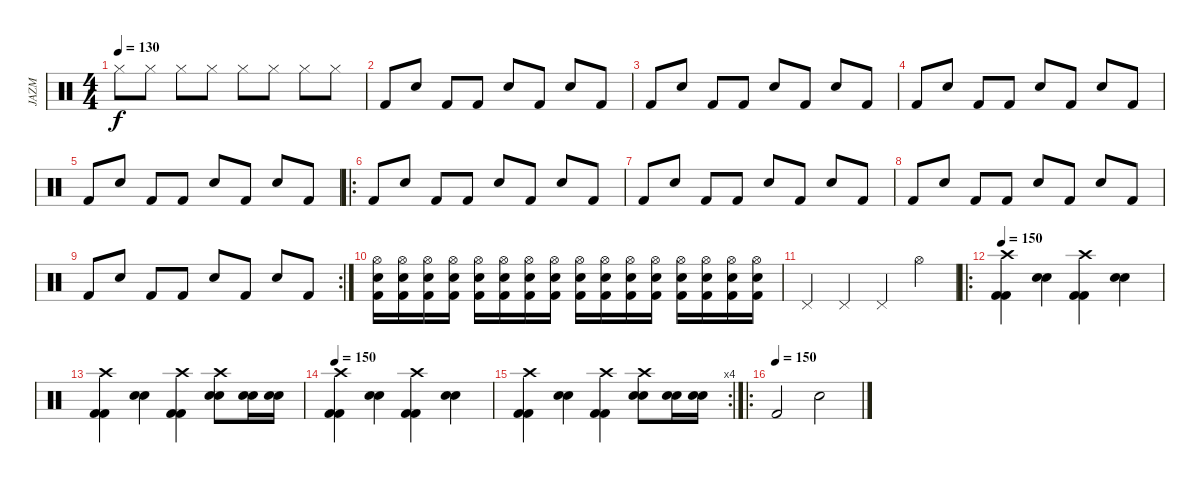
\track ("JAZM" "JAZM") {instrument percussion}
\staff {score}
\articulation defaults
\ts (4 4)
\tempo 130
\clef neutral
\ks c "Hi-Hat (closed)".8{dy f} "Hi-Hat (closed)".8 "Hi-Hat (closed)".8 "Hi-Hat (closed)".8 "Hi-Hat (closed)".8 "Hi-Hat (closed)".8 "Hi-Hat (closed)".8 "Hi-Hat (closed)".8
|
"Kick (hit) 2".8 "Snare (hit) 2".8 "Kick (hit) 2".8 "Kick (hit) 2".8 "Snare (hit) 2".8 "Kick (hit) 2".8 "Snare (hit) 2".8 "Kick (hit) 2".8 |
"Kick (hit) 2".8 "Snare (hit) 2".8 "Kick (hit) 2".8 "Kick (hit) 2".8 "Snare (hit) 2".8 "Kick (hit) 2".8 "Snare (hit) 2".8 "Kick (hit) 2".8 |
"Kick (hit) 2".8 "Snare (hit) 2".8 "Kick (hit) 2".8 "Kick (hit) 2".8 "Snare (hit) 2".8 "Kick (hit) 2".8 "Snare (hit) 2".8 "Kick (hit) 2".8 |
"Kick (hit) 2".8 "Snare (hit) 2".8 "Kick (hit) 2".8 "Kick (hit) 2".8 "Snare (hit) 2".8 "Kick (hit) 2".8 "Snare (hit) 2".8 "Kick (hit) 2".8 |
\ro "Kick (hit) 2".8 "Snare (hit) 2".8 "Kick (hit) 2".8 "Kick (hit) 2".8 "Snare (hit) 2".8 "Kick (hit) 2".8 "Snare (hit) 2".8 "Kick (hit) 2".8
|
"Kick (hit) 2".8 "Snare (hit) 2".8 "Kick (hit) 2".8 "Kick (hit) 2".8 "Snare (hit) 2".8 "Kick (hit) 2".8 "Snare (hit) 2".8 "Kick (hit) 2".8 |
"Kick (hit) 2".8 "Snare (hit) 2".8 "Kick (hit) 2".8 "Kick (hit) 2".8 "Snare (hit) 2".8 "Kick (hit) 2".8 "Snare (hit) 2".8 "Kick (hit) 2".8 |
\rc 2 "Kick (hit) 2".8 "Snare (hit) 2".8 "Kick (hit) 2".8 "Kick (hit) 2".8 "Snare (hit) 2".8 "Kick (hit) 2".8 "Snare (hit) 2".8 "Kick (hit) 2".8
|
("Hi-Hat (open)" "Kick (hit) 2" "Snare (hit) 2").16 ("Hi-Hat (open)" "Kick (hit) 2" "Snare (hit) 2").16 ("Hi-Hat (open)" "Kick (hit) 2" "Snare (hit) 2").16 ("Hi-Hat (open)" "Kick (hit) 2" "Snare (hit) 2").16 ("Hi-Hat (open)" "Kick (hit) 2" "Snare (hit) 2").16 ("Hi-Hat (open)" "Kick (hit) 2" "Snare (hit) 2").16 ("Hi-Hat (open)" "Kick (hit) 2" "Snare (hit) 2").16 ("Hi-Hat (open)" "Kick (hit) 2" "Snare (hit) 2").16 ("Hi-Hat (open)" "Kick (hit) 2" "Snare (hit) 2").16 ("Hi-Hat (open)" "Kick (hit) 2" "Snare (hit) 2").16 ("Hi-Hat (open)" "Kick (hit) 2" "Snare (hit) 2").16 ("Hi-Hat (open)" "Kick (hit) 2" "Snare (hit) 2").16 ("Hi-Hat (open)" "Kick (hit) 2" "Snare (hit) 2").16 ("Hi-Hat (open)" "Kick (hit) 2" "Snare (hit) 2").16 ("Hi-Hat (open)" "Kick (hit) 2" "Snare (hit) 2").16 ("Hi-Hat (open)" "Kick (hit) 2" "Snare (hit) 2").16 |
"Pedal Hi-Hat (hit)".4 "Pedal Hi-Hat (hit)".4 "Pedal Hi-Hat (hit)".4 "Hi-Hat (open)".4 |
\ro
\tempo 150
("Crash high (hit)" "Kick (hit) 2" "Kick (hit) 2").4 ("Electric Snare (hit)" "Electric Snare (hit)").4 ("Crash high (hit)" "Kick (hit) 2" "Kick (hit) 2").4 ("Electric Snare (hit)" "Electric Snare (hit)").4 |
("Crash high (hit)" "Kick (hit) 2" "Kick (hit) 2").4 ("Electric Snare (hit)" "Electric Snare (hit)").4 ("Crash high (hit)" "Kick (hit) 2" "Kick (hit) 2").4 ("Crash high (hit)" "Electric Snare (hit)" "Electric Snare (hit)").8 ("Electric Snare (hit)" "Electric Snare (hit)").16 ("Electric Snare (hit)" "Electric Snare (hit)").16 |
\tempo 150
("Crash high (hit)" "Kick (hit) 2" "Kick (hit) 2").4 ("Electric Snare (hit)" "Electric Snare (hit)").4 ("Crash high (hit)" "Kick (hit) 2" "Kick (hit) 2").4 ("Electric Snare (hit)" "Electric Snare (hit)").4 |
\rc 4
("Crash high (hit)" "Kick (hit) 2" "Kick (hit) 2").4 ("Electric Snare (hit)" "Electric Snare (hit)").4 ("Crash high (hit)" "Kick (hit) 2" "Kick (hit) 2").4 ("Crash high (hit)" "Electric Snare (hit)" "Electric Snare (hit)").8 ("Electric Snare (hit)" "Electric Snare (hit)").16 ("Electric Snare (hit)" "Electric Snare (hit)").16 |
\ro
\tempo (150)
"Kick (hit) 2".2 "Electric Snare (hit)".2
